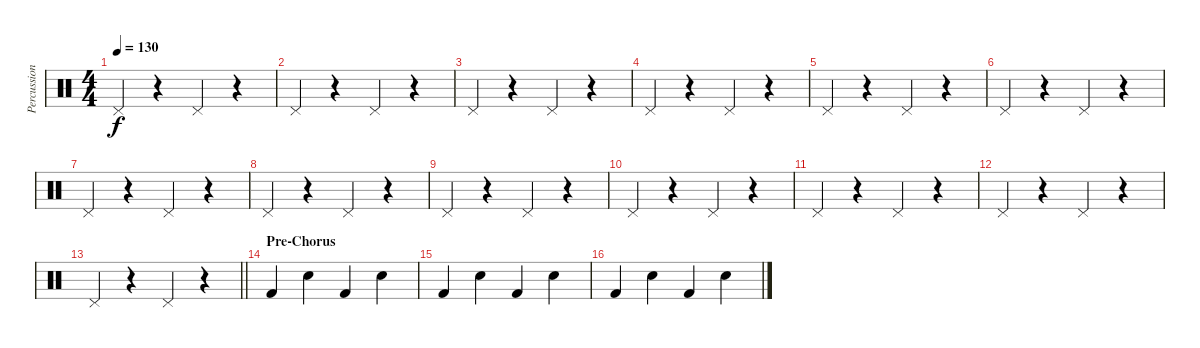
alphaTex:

\track ("Percussion 2" "Percussion") {instrument percussion}
\staff {score}
\articulation defaults
\ts (4 4)
\tempo 130
\clef neutral
\ks c "Pedal Hi-Hat (hit)".4{dy f}
r.4 "Pedal Hi-Hat (hit)".4 r.4 |
"Pedal Hi-Hat (hit)".4 r.4 "Pedal Hi-Hat (hit)".4 r.4 |
"Pedal Hi-Hat (hit)".4 r.4 "Pedal Hi-Hat (hit)".4 r.4 |
"Pedal Hi-Hat (hit)".4 r.4 "Pedal Hi-Hat (hit)".4 r.4 |
"Pedal Hi-Hat (hit)".4 r.4 "Pedal Hi-Hat (hit)".4 r.4 |
"Pedal Hi-Hat (hit)".4 r.4 "Pedal Hi-Hat (hit)".4 r.4 |
"Pedal Hi-Hat (hit)".4 r.4 "Pedal Hi-Hat (hit)".4 r.4 |
"Pedal Hi-Hat (hit)".4 r.4 "Pedal Hi-Hat (hit)".4 r.4 |
"Pedal Hi-Hat (hit)".4 r.4 "Pedal Hi-Hat (hit)".4 r.4 |
"Pedal Hi-Hat (hit)".4 r.4 "Pedal Hi-Hat (hit)".4 r.4 |
"Pedal Hi-Hat (hit)".4 r.4 "Pedal Hi-Hat (hit)".4 r.4 |
"Pedal Hi-Hat (hit)".4 r.4 "Pedal Hi-Hat (hit)".4 r.4 |
\barLineRight lightlight "Pedal Hi-Hat (hit)".4
r.4 "Pedal Hi-Hat (hit)".4 r.4 |
\section ("" "Pre-Chorus")
"Kick (hit) 2".4 "Electric Snare (hit)".4 "Kick (hit) 2".4 "Electric Snare (hit)".4 |
"Kick (hit) 2".4 "Electric Snare (hit)".4 "Kick (hit) 2".4 "Electric Snare (hit)".4 |
"Kick (hit) 2".4 "Electric Snare (hit)".4 "Kick (hit) 2".4 "Electric Snare (hit)".4
